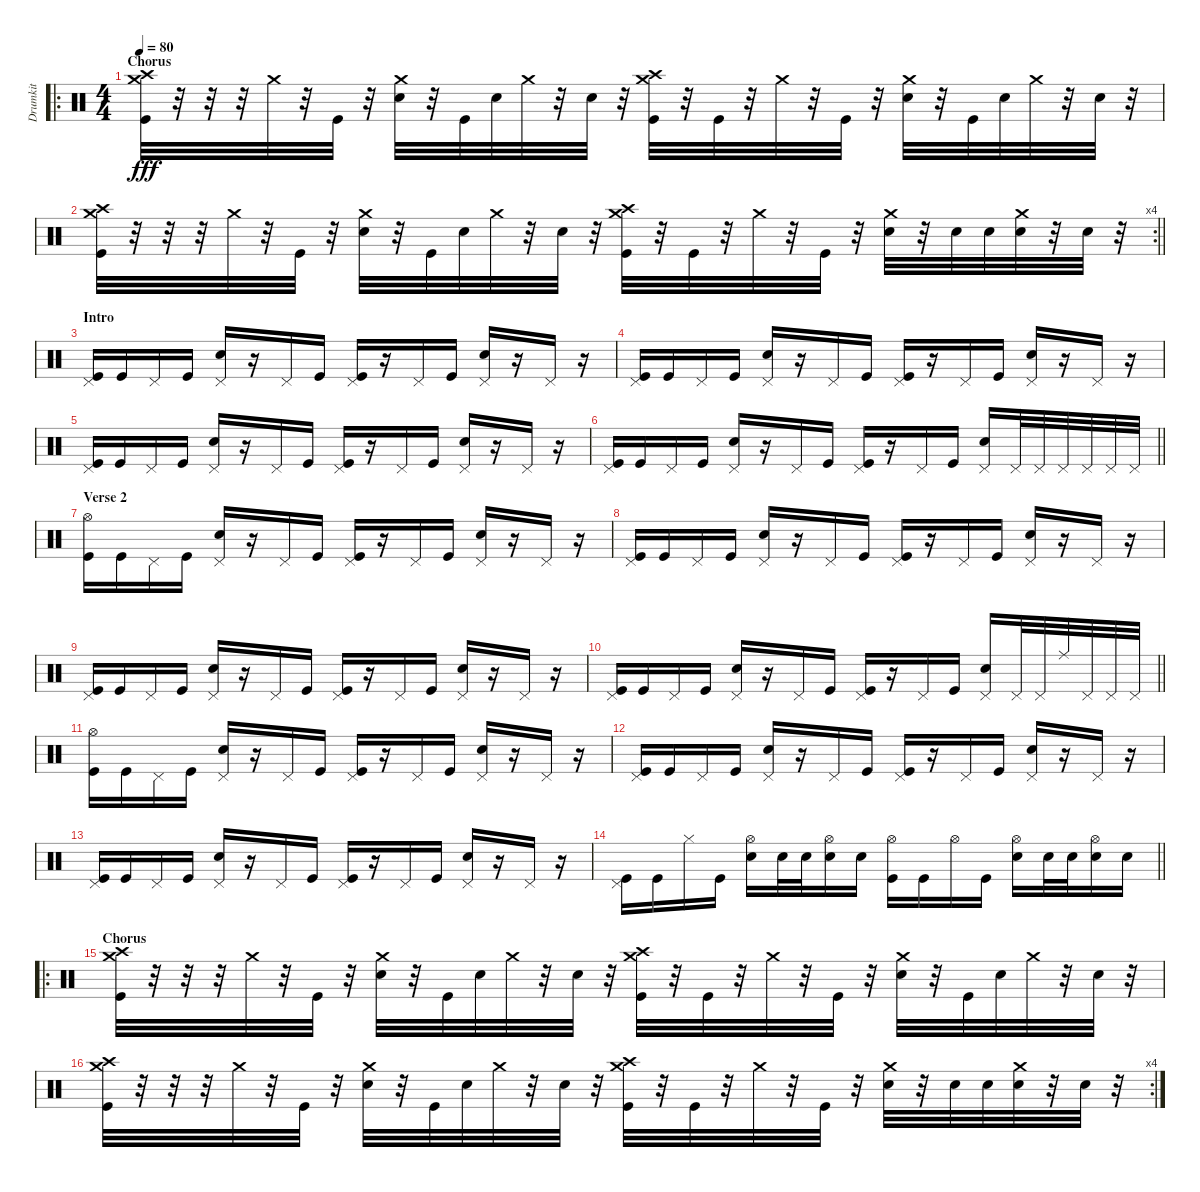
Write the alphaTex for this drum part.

\track ("Drumkit" "Drumkit") {instrument percussion}
\staff {score}
\articulation defaults
\ro
\ts (4 4)
\section ("" "Chorus")
\tempo 80
\clef neutral
\ks c
("Crash medium (hit)" "Crash high (hit)" "Kick (hit)").32{dy fff} r.32 r.32 r.32 "Crash medium (hit)".32 r.32 "Kick (hit)".32 r.32 ("Crash medium (hit)" "Snare (hit) 2").32 r.32 "Kick (hit)".32 "Snare (hit) 2".32 "Crash medium (hit)".32 r.32 "Snare (hit) 2".32 r.32 ("Crash medium (hit)" "Crash high (hit)" "Kick (hit)").32 r.32 "Kick (hit)".32 r.32 "Crash medium (hit)".32 r.32 "Kick (hit)".32 r.32 ("Crash medium (hit)" "Snare (hit) 2").32 r.32 "Kick (hit)".32 "Snare (hit) 2".32 "Crash medium (hit)".32 r.32 "Snare (hit) 2".32 r.32 |
\rc 4
\barLineRight lightlight
("Crash medium (hit)" "Crash high (hit)" "Kick (hit)").32 r.32 r.32 r.32 "Crash medium (hit)".32 r.32 "Kick (hit)".32 r.32 ("Crash medium (hit)" "Snare (hit) 2").32 r.32 "Kick (hit)".32 "Snare (hit) 2".32 "Crash medium (hit)".32 r.32 "Snare (hit) 2".32 r.32 ("Crash medium (hit)" "Crash high (hit)" "Kick (hit)").32 r.32 "Kick (hit)".32 r.32 "Crash medium (hit)".32 r.32 "Kick (hit)".32 r.32 ("Crash medium (hit)" "Snare (hit) 2").32 r.32 "Snare (hit) 2".32 "Snare (hit) 2".32 ("Crash medium (hit)" "Snare (hit) 2").32 r.32 "Snare (hit) 2".32 r.32 |
\section ("" "Intro")
("Pedal Hi-Hat (hit)" "Kick (hit)").16 "Kick (hit)".16 "Pedal Hi-Hat (hit)".16 "Kick (hit)".16 ("Pedal Hi-Hat (hit)" "Snare (hit) 2").16 r.16 "Pedal Hi-Hat (hit)".16 "Kick (hit)".16 ("Pedal Hi-Hat (hit)" "Kick (hit)").16 r.16 "Pedal Hi-Hat (hit)".16 "Kick (hit)".16 ("Pedal Hi-Hat (hit)" "Snare (hit) 2").16 r.16 "Pedal Hi-Hat (hit)".16 r.16 |
("Pedal Hi-Hat (hit)" "Kick (hit)").16 "Kick (hit)".16 "Pedal Hi-Hat (hit)".16 "Kick (hit)".16 ("Pedal Hi-Hat (hit)" "Snare (hit) 2").16 r.16 "Pedal Hi-Hat (hit)".16 "Kick (hit)".16 ("Pedal Hi-Hat (hit)" "Kick (hit)").16 r.16 "Pedal Hi-Hat (hit)".16 "Kick (hit)".16 ("Pedal Hi-Hat (hit)" "Snare (hit) 2").16 r.16 "Pedal Hi-Hat (hit)".16 r.16 |
("Pedal Hi-Hat (hit)" "Kick (hit)").16 "Kick (hit)".16 "Pedal Hi-Hat (hit)".16 "Kick (hit)".16 ("Pedal Hi-Hat (hit)" "Snare (hit) 2").16 r.16 "Pedal Hi-Hat (hit)".16 "Kick (hit)".16 ("Pedal Hi-Hat (hit)" "Kick (hit)").16 r.16 "Pedal Hi-Hat (hit)".16 "Kick (hit)".16 ("Pedal Hi-Hat (hit)" "Snare (hit) 2").16 r.16 "Pedal Hi-Hat (hit)".16 r.16 |
\barLineRight lightlight
("Pedal Hi-Hat (hit)" "Kick (hit)").16 "Kick (hit)".16 "Pedal Hi-Hat (hit)".16 "Kick (hit)".16 ("Pedal Hi-Hat (hit)" "Snare (hit) 2").16 r.16 "Pedal Hi-Hat (hit)".16 "Kick (hit)".16 ("Pedal Hi-Hat (hit)" "Kick (hit)").16 r.16 "Pedal Hi-Hat (hit)".16 "Kick (hit)".16 ("Pedal Hi-Hat (hit)" "Snare (hit) 2").16 "Pedal Hi-Hat (hit)".32 "Pedal Hi-Hat (hit)".32 "Pedal Hi-Hat (hit)".32 "Pedal Hi-Hat (hit)".32 "Pedal Hi-Hat (hit)".32 "Pedal Hi-Hat (hit)".32 |
\section ("" "Verse 2")
("Hi-Hat (open)" "Kick (hit)").16 "Kick (hit)".16 "Pedal Hi-Hat (hit)".16 "Kick (hit)".16 ("Pedal Hi-Hat (hit)" "Snare (hit) 2").16 r.16 "Pedal Hi-Hat (hit)".16 "Kick (hit)".16 ("Pedal Hi-Hat (hit)" "Kick (hit)").16 r.16 "Pedal Hi-Hat (hit)".16 "Kick (hit)".16 ("Pedal Hi-Hat (hit)" "Snare (hit) 2").16 r.16 "Pedal Hi-Hat (hit)".16 r.16 |
("Pedal Hi-Hat (hit)" "Kick (hit)").16 "Kick (hit)".16 "Pedal Hi-Hat (hit)".16 "Kick (hit)".16 ("Pedal Hi-Hat (hit)" "Snare (hit) 2").16 r.16 "Pedal Hi-Hat (hit)".16 "Kick (hit)".16 ("Pedal Hi-Hat (hit)" "Kick (hit)").16 r.16 "Pedal Hi-Hat (hit)".16 "Kick (hit)".16 ("Pedal Hi-Hat (hit)" "Snare (hit) 2").16 r.16 "Pedal Hi-Hat (hit)".16 r.16 |
("Pedal Hi-Hat (hit)" "Kick (hit)").16 "Kick (hit)".16 "Pedal Hi-Hat (hit)".16 "Kick (hit)".16 ("Pedal Hi-Hat (hit)" "Snare (hit) 2").16 r.16 "Pedal Hi-Hat (hit)".16 "Kick (hit)".16 ("Pedal Hi-Hat (hit)" "Kick (hit)").16 r.16 "Pedal Hi-Hat (hit)".16 "Kick (hit)".16 ("Pedal Hi-Hat (hit)" "Snare (hit) 2").16 r.16 "Pedal Hi-Hat (hit)".16 r.16 |
\barLineRight lightlight
("Pedal Hi-Hat (hit)" "Kick (hit)").16 "Kick (hit)".16 "Pedal Hi-Hat (hit)".16 "Kick (hit)".16 ("Pedal Hi-Hat (hit)" "Snare (hit) 2").16 r.16 "Pedal Hi-Hat (hit)".16 "Kick (hit)".16 ("Pedal Hi-Hat (hit)" "Kick (hit)").16 r.16 "Pedal Hi-Hat (hit)".16 "Kick (hit)".16 ("Pedal Hi-Hat (hit)" "Snare (hit) 2").16 "Pedal Hi-Hat (hit)".32 "Pedal Hi-Hat (hit)".32 "Ride (middle)".32 "Pedal Hi-Hat (hit)".32 "Pedal Hi-Hat (hit)".32 "Pedal Hi-Hat (hit)".32 |
("Hi-Hat (open)" "Kick (hit)").16 "Kick (hit)".16 "Pedal Hi-Hat (hit)".16 "Kick (hit)".16 ("Pedal Hi-Hat (hit)" "Snare (hit) 2").16 r.16 "Pedal Hi-Hat (hit)".16 "Kick (hit)".16 ("Pedal Hi-Hat (hit)" "Kick (hit)").16 r.16 "Pedal Hi-Hat (hit)".16 "Kick (hit)".16 ("Pedal Hi-Hat (hit)" "Snare (hit) 2").16 r.16 "Pedal Hi-Hat (hit)".16 r.16 |
("Pedal Hi-Hat (hit)" "Kick (hit)").16 "Kick (hit)".16 "Pedal Hi-Hat (hit)".16 "Kick (hit)".16 ("Pedal Hi-Hat (hit)" "Snare (hit) 2").16 r.16 "Pedal Hi-Hat (hit)".16 "Kick (hit)".16 ("Pedal Hi-Hat (hit)" "Kick (hit)").16 r.16 "Pedal Hi-Hat (hit)".16 "Kick (hit)".16 ("Pedal Hi-Hat (hit)" "Snare (hit) 2").16 r.16 "Pedal Hi-Hat (hit)".16 r.16 |
("Pedal Hi-Hat (hit)" "Kick (hit)").16 "Kick (hit)".16 "Pedal Hi-Hat (hit)".16 "Kick (hit)".16 ("Pedal Hi-Hat (hit)" "Snare (hit) 2").16 r.16 "Pedal Hi-Hat (hit)".16 "Kick (hit)".16 ("Pedal Hi-Hat (hit)" "Kick (hit)").16 r.16 "Pedal Hi-Hat (hit)".16 "Kick (hit)".16 ("Pedal Hi-Hat (hit)" "Snare (hit) 2").16 r.16 "Pedal Hi-Hat (hit)".16 r.16 |
\barLineRight lightlight
("Pedal Hi-Hat (hit)" "Kick (hit)").16 "Kick (hit)".16 "Hi-Hat (closed)".16 "Kick (hit)".16 ("Hi-Hat (open)" "Snare (hit) 2").16 "Snare (hit) 2".32 "Snare (hit) 2".32 ("Hi-Hat (open)" "Snare (hit) 2").16 "Snare (hit) 2".16 ("Hi-Hat (open)" "Kick (hit)").16 "Kick (hit)".16 "Hi-Hat (open)".16 "Kick (hit)".16 ("Hi-Hat (open)" "Snare (hit) 2").16 "Snare (hit) 2".32 "Snare (hit) 2".32 ("Hi-Hat (open)" "Snare (hit) 2").16 "Snare (hit) 2".16 |
\ro
\section ("" "Chorus")
("Crash medium (hit)" "Crash high (hit)" "Kick (hit)").32 r.32 r.32 r.32 "Crash medium (hit)".32 r.32 "Kick (hit)".32 r.32 ("Crash medium (hit)" "Snare (hit) 2").32 r.32 "Kick (hit)".32 "Snare (hit) 2".32 "Crash medium (hit)".32 r.32 "Snare (hit) 2".32 r.32 ("Crash medium (hit)" "Crash high (hit)" "Kick (hit)").32 r.32 "Kick (hit)".32 r.32 "Crash medium (hit)".32 r.32 "Kick (hit)".32 r.32 ("Crash medium (hit)" "Snare (hit) 2").32 r.32 "Kick (hit)".32 "Snare (hit) 2".32 "Crash medium (hit)".32 r.32 "Snare (hit) 2".32 r.32 |
\rc 4
("Crash medium (hit)" "Crash high (hit)" "Kick (hit)").32 r.32 r.32 r.32 "Crash medium (hit)".32 r.32 "Kick (hit)".32 r.32 ("Crash medium (hit)" "Snare (hit) 2").32 r.32 "Kick (hit)".32 "Snare (hit) 2".32 "Crash medium (hit)".32 r.32 "Snare (hit) 2".32 r.32 ("Crash medium (hit)" "Crash high (hit)" "Kick (hit)").32 r.32 "Kick (hit)".32 r.32 "Crash medium (hit)".32 r.32 "Kick (hit)".32 r.32 ("Crash medium (hit)" "Snare (hit) 2").32 r.32 "Snare (hit) 2".32 "Snare (hit) 2".32 ("Crash medium (hit)" "Snare (hit) 2").32 r.32 "Snare (hit) 2".32 r.32
